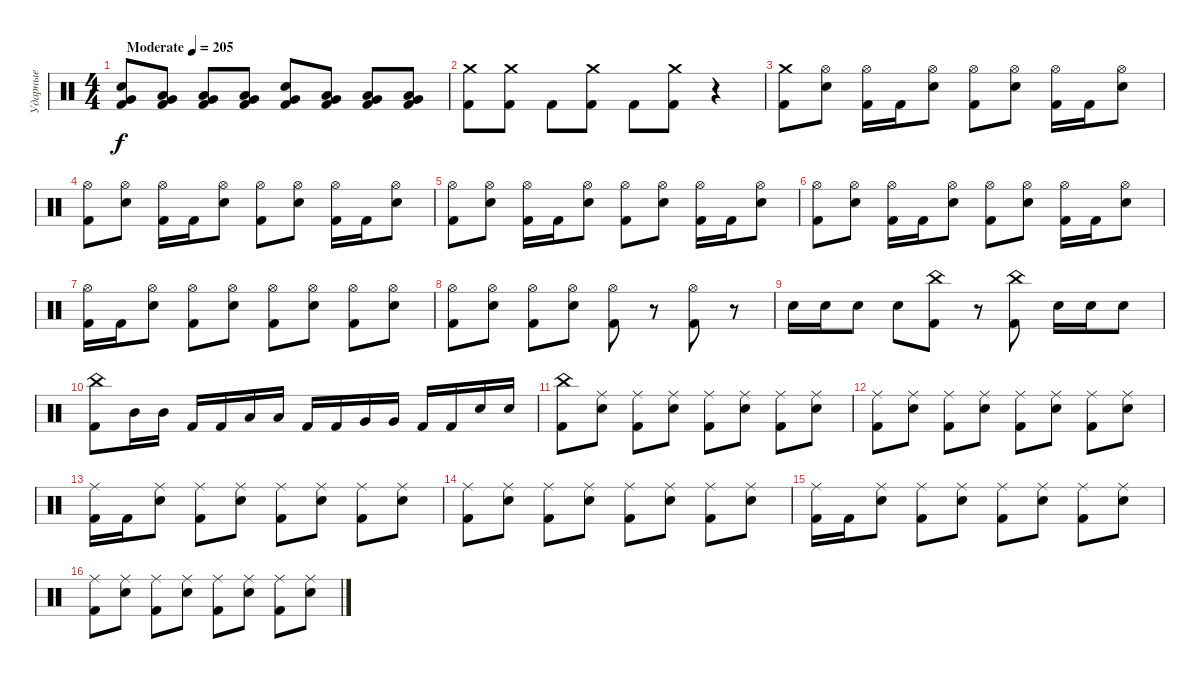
\track ("Ударные" "Ударные") {instrument percussion}
\staff {score}
\articulation defaults
\ts (4 4)
\tempo (205 "Moderate")
\clef neutral
\ks c
("Electric Snare (hit)" "Very Low Tom (hit)" "Kick (hit) 2").8{dy f} ("Low Tom (hit)" "Very Low Tom (hit)" "Kick (hit) 2").8 ("Low Tom (hit)" "Very Low Tom (hit)" "Kick (hit) 2").8 ("Low Tom (hit)" "Very Low Tom (hit)" "Kick (hit) 2").8 ("Electric Snare (hit)" "Very Low Tom (hit)" "Kick (hit) 2").8 ("Low Tom (hit)" "Very Low Tom (hit)" "Kick (hit) 2").8 ("Low Tom (hit)" "Very Low Tom (hit)" "Kick (hit) 2").8 ("Low Tom (hit)" "Very Low Tom (hit)" "Kick (hit) 2").8 |
("Crash medium (hit)" "Kick (hit) 2").8 ("Crash medium (hit)" "Kick (hit) 2").8 "Kick (hit) 2".8 ("Crash medium (hit)" "Kick (hit) 2").8 "Kick (hit) 2".8 ("Crash medium (hit)" "Kick (hit) 2").8 r.4 |
("Crash medium (hit)" "Kick (hit) 2").8 ("Hi-Hat (open)" "Electric Snare (hit)").8 ("Hi-Hat (open)" "Kick (hit) 2").16 "Kick (hit) 2".16 ("Hi-Hat (open)" "Electric Snare (hit)").8 ("Hi-Hat (open)" "Kick (hit) 2").8 ("Hi-Hat (open)" "Electric Snare (hit)").8 ("Hi-Hat (open)" "Kick (hit) 2").16 "Kick (hit) 2".16 ("Hi-Hat (open)" "Electric Snare (hit)").8 |
("Hi-Hat (open)" "Kick (hit) 2").8 ("Hi-Hat (open)" "Electric Snare (hit)").8 ("Hi-Hat (open)" "Kick (hit) 2").16 "Kick (hit) 2".16 ("Hi-Hat (open)" "Electric Snare (hit)").8 ("Hi-Hat (open)" "Kick (hit) 2").8 ("Hi-Hat (open)" "Electric Snare (hit)").8 ("Hi-Hat (open)" "Kick (hit) 2").16 "Kick (hit) 2".16 ("Hi-Hat (open)" "Electric Snare (hit)").8 |
("Hi-Hat (open)" "Kick (hit) 2").8 ("Hi-Hat (open)" "Electric Snare (hit)").8 ("Hi-Hat (open)" "Kick (hit) 2").16 "Kick (hit) 2".16 ("Hi-Hat (open)" "Electric Snare (hit)").8 ("Hi-Hat (open)" "Kick (hit) 2").8 ("Hi-Hat (open)" "Electric Snare (hit)").8 ("Hi-Hat (open)" "Kick (hit) 2").16 "Kick (hit) 2".16 ("Hi-Hat (open)" "Electric Snare (hit)").8 |
("Hi-Hat (open)" "Kick (hit) 2").8 ("Hi-Hat (open)" "Electric Snare (hit)").8 ("Hi-Hat (open)" "Kick (hit) 2").16 "Kick (hit) 2".16 ("Hi-Hat (open)" "Electric Snare (hit)").8 ("Hi-Hat (open)" "Kick (hit) 2").8 ("Hi-Hat (open)" "Electric Snare (hit)").8 ("Hi-Hat (open)" "Kick (hit) 2").16 "Kick (hit) 2".16 ("Hi-Hat (open)" "Electric Snare (hit)").8 |
("Hi-Hat (open)" "Kick (hit) 2").16 "Kick (hit) 2".16 ("Hi-Hat (open)" "Electric Snare (hit)").8 ("Hi-Hat (open)" "Kick (hit) 2").8 ("Hi-Hat (open)" "Electric Snare (hit)").8 ("Hi-Hat (open)" "Kick (hit) 2").8 ("Hi-Hat (open)" "Electric Snare (hit)").8 ("Hi-Hat (open)" "Kick (hit) 2").8 ("Hi-Hat (open)" "Electric Snare (hit)").8 |
("Hi-Hat (open)" "Kick (hit) 2").8 ("Hi-Hat (open)" "Electric Snare (hit)").8 ("Hi-Hat (open)" "Kick (hit) 2").8 ("Hi-Hat (open)" "Electric Snare (hit)").8 ("Hi-Hat (open)" "Kick (hit) 2").8 r.8 ("Hi-Hat (open)" "Kick (hit) 2").8 r.8 |
"Electric Snare (hit)".16 "Electric Snare (hit)".16 "Electric Snare (hit)".8 "Electric Snare (hit)".8 ("China (hit)" "Kick (hit) 2").8 r.8 ("China (hit)" "Kick (hit) 2").8 "Electric Snare (hit)".16 "Electric Snare (hit)".16 "Electric Snare (hit)".8 |
("China (hit)" "Kick (hit) 2").8 "Mid Tom (hit)".16 "Mid Tom (hit)".16 "Kick (hit) 2".16 "Kick (hit) 2".16 "Low Tom (hit)".16 "Low Tom (hit)".16 "Kick (hit) 2".16 "Kick (hit) 2".16 "Very Low Tom (hit)".16 "Very Low Tom (hit)".16 "Kick (hit) 2".16 "Kick (hit) 2".16 "Electric Snare (hit)".16 "Electric Snare (hit)".16 |
("China (hit)" "Kick (hit) 2").8 ("Ride (middle)" "Electric Snare (hit)").8 ("Ride (middle)" "Kick (hit) 2").8 ("Ride (middle)" "Electric Snare (hit)").8 ("Ride (middle)" "Kick (hit) 2").8 ("Ride (middle)" "Electric Snare (hit)").8 ("Ride (middle)" "Kick (hit) 2").8 ("Ride (middle)" "Electric Snare (hit)").8 |
("Ride (middle)" "Kick (hit) 2").8 ("Ride (middle)" "Electric Snare (hit)").8 ("Ride (middle)" "Kick (hit) 2").8 ("Ride (middle)" "Electric Snare (hit)").8 ("Ride (middle)" "Kick (hit) 2").8 ("Ride (middle)" "Electric Snare (hit)").8 ("Ride (middle)" "Kick (hit) 2").8 ("Ride (middle)" "Electric Snare (hit)").8 |
("Ride (middle)" "Kick (hit) 2").16 "Kick (hit) 2".16 ("Ride (middle)" "Electric Snare (hit)").8 ("Ride (middle)" "Kick (hit) 2").8 ("Ride (middle)" "Electric Snare (hit)").8 ("Ride (middle)" "Kick (hit) 2").8 ("Ride (middle)" "Electric Snare (hit)").8 ("Ride (middle)" "Kick (hit) 2").8 ("Ride (middle)" "Electric Snare (hit)").8 |
("Ride (middle)" "Kick (hit) 2").8 ("Ride (middle)" "Electric Snare (hit)").8 ("Ride (middle)" "Kick (hit) 2").8 ("Ride (middle)" "Electric Snare (hit)").8 ("Ride (middle)" "Kick (hit) 2").8 ("Ride (middle)" "Electric Snare (hit)").8 ("Ride (middle)" "Kick (hit) 2").8 ("Ride (middle)" "Electric Snare (hit)").8 |
("Ride (middle)" "Kick (hit) 2").16 "Kick (hit) 2".16 ("Ride (middle)" "Electric Snare (hit)").8 ("Ride (middle)" "Kick (hit) 2").8 ("Ride (middle)" "Electric Snare (hit)").8 ("Ride (middle)" "Kick (hit) 2").8 ("Ride (middle)" "Electric Snare (hit)").8 ("Ride (middle)" "Kick (hit) 2").8 ("Ride (middle)" "Electric Snare (hit)").8 |
("Ride (middle)" "Kick (hit) 2").8 ("Ride (middle)" "Electric Snare (hit)").8 ("Ride (middle)" "Kick (hit) 2").8 ("Ride (middle)" "Electric Snare (hit)").8 ("Ride (middle)" "Kick (hit) 2").8 ("Ride (middle)" "Electric Snare (hit)").8 ("Ride (middle)" "Kick (hit) 2").8 ("Ride (middle)" "Electric Snare (hit)").8
